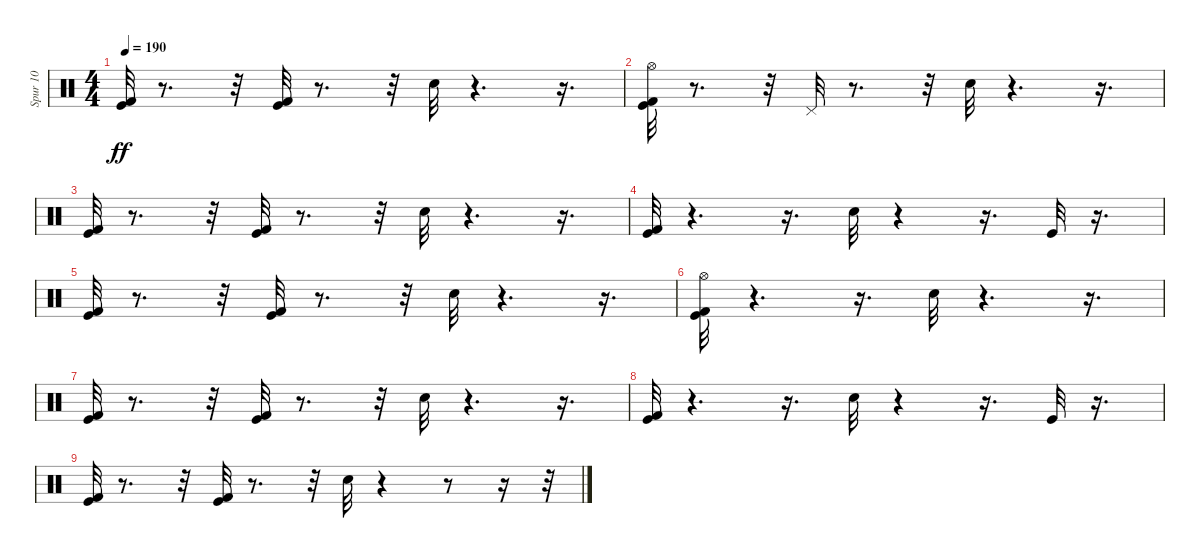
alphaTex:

\track ("Spur 10" "Spur 10") {instrument percussion}
\staff {score}
\articulation defaults
\ts (4 4)
\tempo 190
\clef neutral
\ks c
("Kick (hit) 2" "Kick (hit)").32{dy ff volume 9} r.8{d} r.32 ("Kick (hit) 2" "Kick (hit)").32{volume 9} r.8{d} r.32 "Hand Clap (hit)".32{volume 9} r.4{d} r.16{d} |
("Hi-Hat (open)" "Kick (hit) 2" "Kick (hit)").32{volume 8} r.8{d} r.32 "Pedal Hi-Hat (hit)".32{volume 8} r.8{d} r.32 "Hand Clap (hit)".32{volume 8} r.4{d} r.16{d} |
("Kick (hit) 2" "Kick (hit)").32{volume 7} r.8{d} r.32 ("Kick (hit) 2" "Kick (hit)").32{volume 7} r.8{d} r.32 "Hand Clap (hit)".32{volume 7} r.4{d} r.16{d} |
("Kick (hit) 2" "Kick (hit)").32{volume 6} r.4{d} r.16{d} "Hand Clap (hit)".32{volume 6} r.4 r.16{d} "Kick (hit)".32{volume 5} r.16{d} |
("Kick (hit) 2" "Kick (hit)").32{volume 5} r.8{d} r.32 ("Kick (hit) 2" "Kick (hit)").32{volume 5} r.8{d} r.32 "Hand Clap (hit)".32{volume 5} r.4{d} r.16{d} |
("Hi-Hat (open)" "Kick (hit) 2" "Kick (hit)").32{volume 4} r.4{d} r.16{d} "Hand Clap (hit)".32{volume 4} r.4{d} r.16{d} |
("Kick (hit) 2" "Kick (hit)").32{volume 3} r.8{d} r.32 ("Kick (hit) 2" "Kick (hit)").32{volume 3} r.8{d} r.32 "Hand Clap (hit)".32{volume 3} r.4{d} r.16{d} |
("Kick (hit) 2" "Kick (hit)").32{volume 2} r.4{d} r.16{d} "Hand Clap (hit)".32{volume 2} r.4 r.16{d} "Kick (hit)".32{volume 1} r.16{d} |
("Kick (hit) 2" "Kick (hit)").32{volume 1} r.8{d} r.32 ("Kick (hit) 2" "Kick (hit)").32{volume 1} r.8{d} r.32 "Hand Clap (hit)".32{volume 1} r.4 r.8 r.16 r.32
